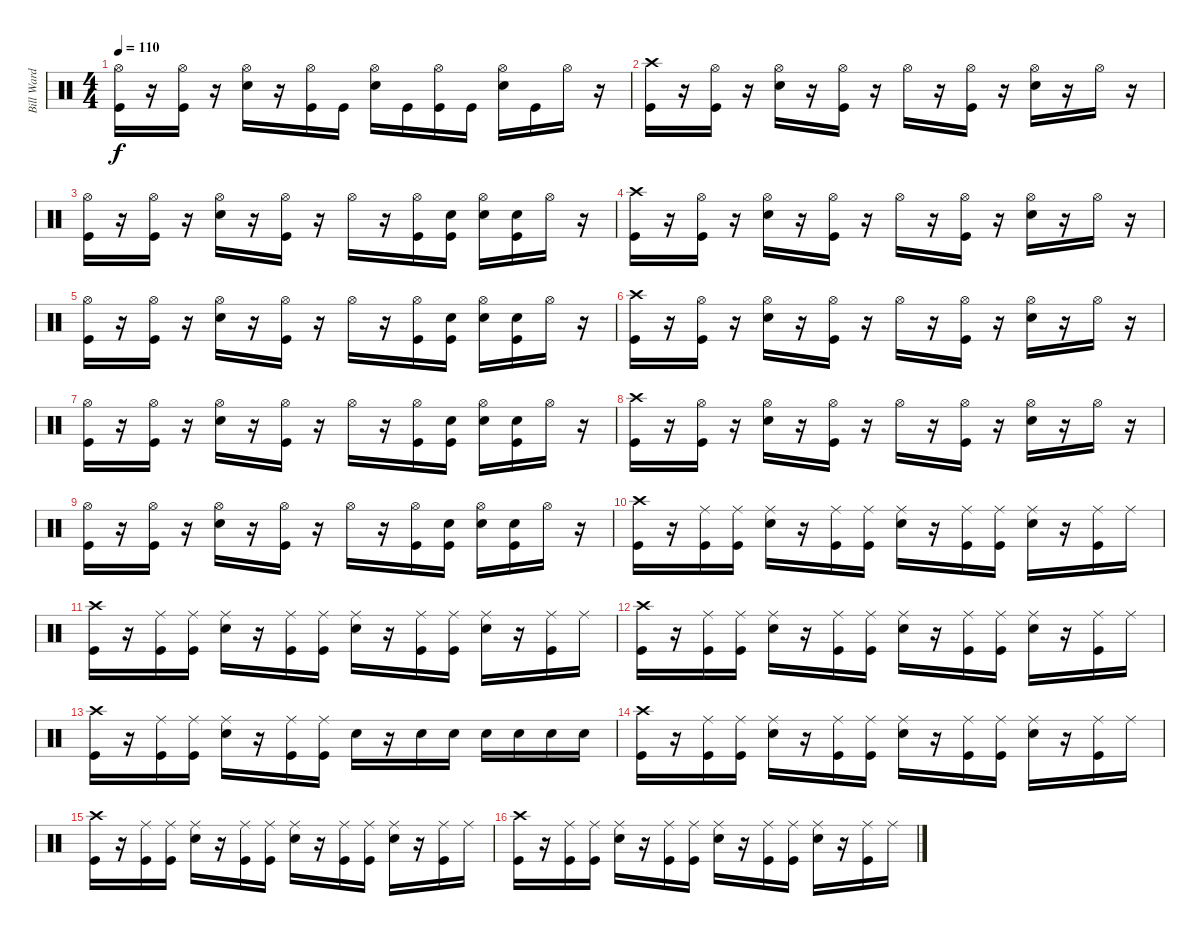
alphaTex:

\track ("Bill Ward" "Bill Ward") {instrument percussion}
\staff {score}
\articulation defaults
\ts (4 4)
\tempo 110
\clef neutral
\ks c
("Kick (hit)" "Hi-Hat (open)").16{dy f} r.16 ("Kick (hit)" "Hi-Hat (open)").16 r.16 ("Snare (hit) 2" "Hi-Hat (open)").16 r.16 ("Kick (hit)" "Hi-Hat (open)").16 "Kick (hit)".16 ("Hi-Hat (open)" "Snare (hit) 2").16 "Kick (hit)".16 ("Kick (hit)" "Hi-Hat (open)").16 "Kick (hit)".16 ("Hi-Hat (open)" "Snare (hit) 2").16 "Kick (hit)".16 "Hi-Hat (open)".16 r.16 |
("Crash high (hit)" "Kick (hit)").16 r.16 ("Kick (hit)" "Hi-Hat (open)").16 r.16 ("Snare (hit) 2" "Hi-Hat (open)").16 r.16 ("Kick (hit)" "Hi-Hat (open)").16 r.16 "Hi-Hat (open)".16 r.16 ("Kick (hit)" "Hi-Hat (open)").16 r.16 ("Snare (hit) 2" "Hi-Hat (open)").16 r.16 "Hi-Hat (open)".16 r.16 |
("Kick (hit)" "Hi-Hat (open)").16 r.16 ("Kick (hit)" "Hi-Hat (open)").16 r.16 ("Snare (hit) 2" "Hi-Hat (open)").16 r.16 ("Kick (hit)" "Hi-Hat (open)").16 r.16 "Hi-Hat (open)".16 r.16 ("Kick (hit)" "Hi-Hat (open)").16 ("Snare (hit)" "Kick (hit)").16 ("Snare (hit) 2" "Hi-Hat (open)").16 ("Snare (hit)" "Kick (hit)").16 "Hi-Hat (open)".16 r.16 |
("Kick (hit)" "Crash high (hit)").16 r.16 ("Kick (hit)" "Hi-Hat (open)").16 r.16 ("Snare (hit) 2" "Hi-Hat (open)").16 r.16 ("Kick (hit)" "Hi-Hat (open)").16 r.16 "Hi-Hat (open)".16 r.16 ("Kick (hit)" "Hi-Hat (open)").16 r.16 ("Snare (hit) 2" "Hi-Hat (open)").16 r.16 "Hi-Hat (open)".16 r.16 |
("Kick (hit)" "Hi-Hat (open)").16 r.16 ("Kick (hit)" "Hi-Hat (open)").16 r.16 ("Snare (hit) 2" "Hi-Hat (open)").16 r.16 ("Kick (hit)" "Hi-Hat (open)").16 r.16 "Hi-Hat (open)".16 r.16 ("Kick (hit)" "Hi-Hat (open)").16 ("Snare (hit)" "Kick (hit)").16 ("Snare (hit) 2" "Hi-Hat (open)").16 ("Snare (hit)" "Kick (hit)").16 "Hi-Hat (open)".16 r.16 |
("Crash high (hit)" "Kick (hit)").16 r.16 ("Kick (hit)" "Hi-Hat (open)").16 r.16 ("Snare (hit) 2" "Hi-Hat (open)").16 r.16 ("Kick (hit)" "Hi-Hat (open)").16 r.16 "Hi-Hat (open)".16 r.16 ("Kick (hit)" "Hi-Hat (open)").16 r.16 ("Snare (hit) 2" "Hi-Hat (open)").16 r.16 "Hi-Hat (open)".16 r.16 |
("Kick (hit)" "Hi-Hat (open)").16 r.16 ("Kick (hit)" "Hi-Hat (open)").16 r.16 ("Snare (hit) 2" "Hi-Hat (open)").16 r.16 ("Kick (hit)" "Hi-Hat (open)").16 r.16 "Hi-Hat (open)".16 r.16 ("Kick (hit)" "Hi-Hat (open)").16 ("Snare (hit)" "Kick (hit)").16 ("Snare (hit) 2" "Hi-Hat (open)").16 ("Snare (hit)" "Kick (hit)").16 "Hi-Hat (open)".16 r.16 |
("Kick (hit)" "Crash high (hit)").16 r.16 ("Kick (hit)" "Hi-Hat (open)").16 r.16 ("Snare (hit) 2" "Hi-Hat (open)").16 r.16 ("Kick (hit)" "Hi-Hat (open)").16 r.16 "Hi-Hat (open)".16 r.16 ("Kick (hit)" "Hi-Hat (open)").16 r.16 ("Snare (hit) 2" "Hi-Hat (open)").16 r.16 "Hi-Hat (open)".16 r.16 |
("Kick (hit)" "Hi-Hat (open)").16 r.16 ("Kick (hit)" "Hi-Hat (open)").16 r.16 ("Snare (hit) 2" "Hi-Hat (open)").16 r.16 ("Kick (hit)" "Hi-Hat (open)").16 r.16 "Hi-Hat (open)".16 r.16 ("Kick (hit)" "Hi-Hat (open)").16 ("Snare (hit)" "Kick (hit)").16 ("Snare (hit) 2" "Hi-Hat (open)").16 ("Snare (hit)" "Kick (hit)").16 "Hi-Hat (open)".16 r.16 |
("Kick (hit)" "Crash high (hit)").16 r.16 ("Kick (hit)" "Ride (middle)").16 ("Kick (hit)" "Ride (middle)").16 ("Ride (middle)" "Snare (hit) 2").16 r.16 ("Kick (hit)" "Ride (middle)").16 ("Kick (hit)" "Ride (middle)").16 ("Ride (middle)" "Snare (hit) 2").16 r.16 ("Kick (hit)" "Ride (middle)").16 ("Kick (hit)" "Ride (middle)").16 ("Ride (middle)" "Snare (hit) 2").16 r.16 ("Kick (hit)" "Ride (middle)").16 "Ride (middle)".16 |
("Crash high (hit)" "Kick (hit)").16 r.16 ("Kick (hit)" "Ride (middle)").16 ("Kick (hit)" "Ride (middle)").16 ("Ride (middle)" "Snare (hit) 2").16 r.16 ("Kick (hit)" "Ride (middle)").16 ("Kick (hit)" "Ride (middle)").16 ("Ride (middle)" "Snare (hit) 2").16 r.16 ("Kick (hit)" "Ride (middle)").16 ("Kick (hit)" "Ride (middle)").16 ("Ride (middle)" "Snare (hit) 2").16 r.16 ("Kick (hit)" "Ride (middle)").16 "Ride (middle)".16 |
("Crash high (hit)" "Kick (hit)").16 r.16 ("Kick (hit)" "Ride (middle)").16 ("Kick (hit)" "Ride (middle)").16 ("Ride (middle)" "Snare (hit) 2").16 r.16 ("Kick (hit)" "Ride (middle)").16 ("Kick (hit)" "Ride (middle)").16 ("Ride (middle)" "Snare (hit) 2").16 r.16 ("Kick (hit)" "Ride (middle)").16 ("Kick (hit)" "Ride (middle)").16 ("Ride (middle)" "Snare (hit) 2").16 r.16 ("Kick (hit)" "Ride (middle)").16 "Ride (middle)".16 |
("Crash high (hit)" "Kick (hit)").16 r.16 ("Kick (hit)" "Ride (middle)").16 ("Kick (hit)" "Ride (middle)").16 ("Ride (middle)" "Snare (hit) 2").16 r.16 ("Kick (hit)" "Ride (middle)").16 ("Kick (hit)" "Ride (middle)").16 "Snare (hit) 2".16 r.16 "Snare (hit) 2".16 "Snare (hit) 2".16 "Snare (hit) 2".16 "Snare (hit) 2".16 "Snare (hit) 2".16 "Snare (hit) 2".16 |
("Kick (hit)" "Crash high (hit)").16 r.16 ("Kick (hit)" "Ride (middle)").16 ("Kick (hit)" "Ride (middle)").16 ("Ride (middle)" "Snare (hit) 2").16 r.16 ("Kick (hit)" "Ride (middle)").16 ("Kick (hit)" "Ride (middle)").16 ("Ride (middle)" "Snare (hit) 2").16 r.16 ("Kick (hit)" "Ride (middle)").16 ("Kick (hit)" "Ride (middle)").16 ("Ride (middle)" "Snare (hit) 2").16 r.16 ("Kick (hit)" "Ride (middle)").16 "Ride (middle)".16 |
("Kick (hit)" "Crash high (hit)").16 r.16 ("Kick (hit)" "Ride (middle)").16 ("Kick (hit)" "Ride (middle)").16 ("Ride (middle)" "Snare (hit) 2").16 r.16 ("Kick (hit)" "Ride (middle)").16 ("Kick (hit)" "Ride (middle)").16 ("Ride (middle)" "Snare (hit) 2").16 r.16 ("Kick (hit)" "Ride (middle)").16 ("Kick (hit)" "Ride (middle)").16 ("Ride (middle)" "Snare (hit) 2").16 r.16 ("Kick (hit)" "Ride (middle)").16 "Ride (middle)".16 |
("Kick (hit)" "Crash high (hit)").16 r.16 ("Kick (hit)" "Ride (middle)").16 ("Kick (hit)" "Ride (middle)").16 ("Ride (middle)" "Snare (hit) 2").16 r.16 ("Kick (hit)" "Ride (middle)").16 ("Kick (hit)" "Ride (middle)").16 ("Ride (middle)" "Snare (hit) 2").16 r.16 ("Kick (hit)" "Ride (middle)").16 ("Kick (hit)" "Ride (middle)").16 ("Ride (middle)" "Snare (hit) 2").16 r.16 ("Kick (hit)" "Ride (middle)").16 "Ride (middle)".16
